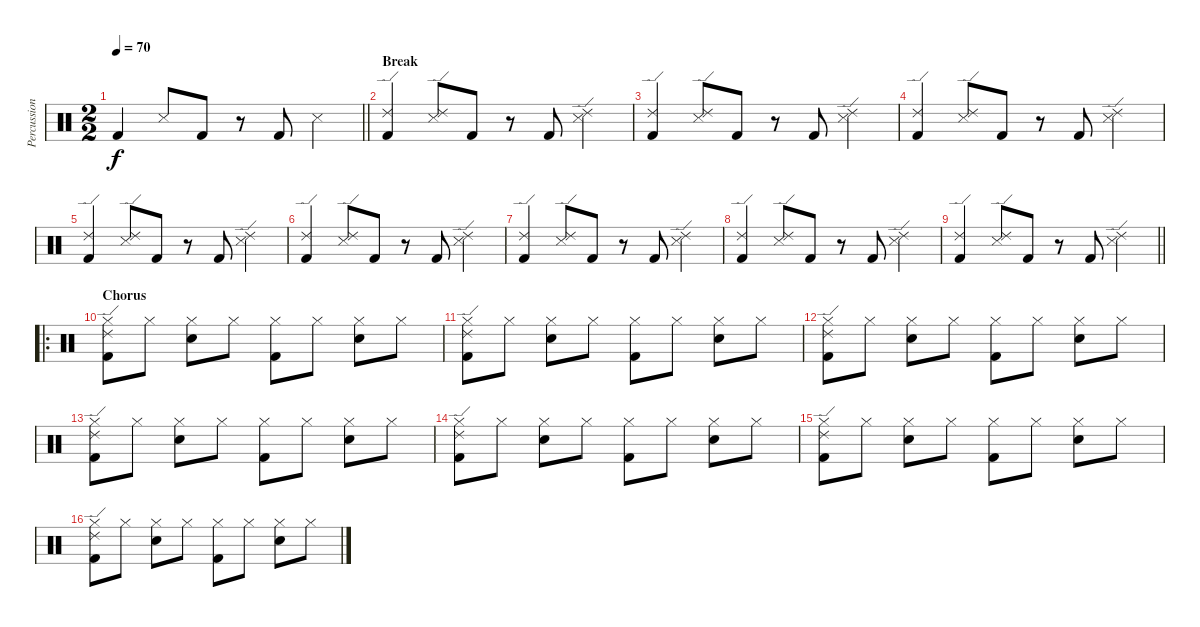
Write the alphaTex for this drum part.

\track ("Percussions" "Percussion") {instrument percussion}
\staff {score}
\articulation defaults
\ts (2 2)
\tempo 70
\clef neutral
\barLineRight lightlight
\ks c "Kick (hit) 2".4{dy f} "Snare (side stick) 3".8 "Kick (hit) 2".8
r.8 "Kick (hit) 2".8 "Snare (side stick) 3".4 |
\section ("" "Break")
("Ride (edge) 2" "Kick (hit) 2").4 ("Snare (side stick) 3" "Ride (edge) 2").8 "Kick (hit) 2".8 r.8 "Kick (hit) 2".8 ("Snare (side stick) 3" "Ride (edge) 2").4 |
("Ride (edge) 2" "Kick (hit) 2").4 ("Snare (side stick) 3" "Ride (edge) 2").8 "Kick (hit) 2".8 r.8 "Kick (hit) 2".8 ("Snare (side stick) 3" "Ride (edge) 2").4 |
("Ride (edge) 2" "Kick (hit) 2").4 ("Snare (side stick) 3" "Ride (edge) 2").8 "Kick (hit) 2".8 r.8 "Kick (hit) 2".8 ("Snare (side stick) 3" "Ride (edge) 2").4 |
("Ride (edge) 2" "Kick (hit) 2").4 ("Snare (side stick) 3" "Ride (edge) 2").8 "Kick (hit) 2".8 r.8 "Kick (hit) 2".8 ("Snare (side stick) 3" "Ride (edge) 2").4 |
("Ride (edge) 2" "Kick (hit) 2").4 ("Snare (side stick) 3" "Ride (edge) 2").8 "Kick (hit) 2".8 r.8 "Kick (hit) 2".8 ("Snare (side stick) 3" "Ride (edge) 2").4 |
("Ride (edge) 2" "Kick (hit) 2").4 ("Snare (side stick) 3" "Ride (edge) 2").8 "Kick (hit) 2".8 r.8 "Kick (hit) 2".8 ("Snare (side stick) 3" "Ride (edge) 2").4 |
("Ride (edge) 2" "Kick (hit) 2").4 ("Snare (side stick) 3" "Ride (edge) 2").8 "Kick (hit) 2".8 r.8 "Kick (hit) 2".8 ("Snare (side stick) 3" "Ride (edge) 2").4 |
\barLineRight lightlight
("Ride (edge) 2" "Kick (hit) 2").4 ("Snare (side stick) 3" "Ride (edge) 2").8 "Kick (hit) 2".8 r.8 "Kick (hit) 2".8 ("Snare (side stick) 3" "Ride (edge) 2").4 |
\ro
\section ("" "Chorus")
("Kick (hit) 2" "Hi-Hat (closed)" "Ride (edge) 2").8 "Hi-Hat (closed)".8 ("Hi-Hat (closed)" "Electric Snare (hit)").8 "Hi-Hat (closed)".8 ("Kick (hit) 2" "Hi-Hat (closed)").8 "Hi-Hat (closed)".8 ("Hi-Hat (closed)" "Electric Snare (hit)").8 "Hi-Hat (closed)".8 |
("Kick (hit) 2" "Hi-Hat (closed)" "Ride (edge) 2").8 "Hi-Hat (closed)".8 ("Hi-Hat (closed)" "Electric Snare (hit)").8 "Hi-Hat (closed)".8 ("Kick (hit) 2" "Hi-Hat (closed)").8 "Hi-Hat (closed)".8 ("Hi-Hat (closed)" "Electric Snare (hit)").8 "Hi-Hat (closed)".8 |
("Kick (hit) 2" "Hi-Hat (closed)" "Ride (edge) 2").8 "Hi-Hat (closed)".8 ("Hi-Hat (closed)" "Electric Snare (hit)").8 "Hi-Hat (closed)".8 ("Kick (hit) 2" "Hi-Hat (closed)").8 "Hi-Hat (closed)".8 ("Hi-Hat (closed)" "Electric Snare (hit)").8 "Hi-Hat (closed)".8 |
("Kick (hit) 2" "Hi-Hat (closed)" "Ride (edge) 2").8 "Hi-Hat (closed)".8 ("Hi-Hat (closed)" "Electric Snare (hit)").8 "Hi-Hat (closed)".8 ("Kick (hit) 2" "Hi-Hat (closed)").8 "Hi-Hat (closed)".8 ("Hi-Hat (closed)" "Electric Snare (hit)").8 "Hi-Hat (closed)".8 |
("Kick (hit) 2" "Hi-Hat (closed)" "Ride (edge) 2").8 "Hi-Hat (closed)".8 ("Hi-Hat (closed)" "Electric Snare (hit)").8 "Hi-Hat (closed)".8 ("Kick (hit) 2" "Hi-Hat (closed)").8 "Hi-Hat (closed)".8 ("Hi-Hat (closed)" "Electric Snare (hit)").8 "Hi-Hat (closed)".8 |
("Kick (hit) 2" "Hi-Hat (closed)" "Ride (edge) 2").8 "Hi-Hat (closed)".8 ("Hi-Hat (closed)" "Electric Snare (hit)").8 "Hi-Hat (closed)".8 ("Kick (hit) 2" "Hi-Hat (closed)").8 "Hi-Hat (closed)".8 ("Hi-Hat (closed)" "Electric Snare (hit)").8 "Hi-Hat (closed)".8 |
("Kick (hit) 2" "Hi-Hat (closed)" "Ride (edge) 2").8 "Hi-Hat (closed)".8 ("Hi-Hat (closed)" "Electric Snare (hit)").8 "Hi-Hat (closed)".8 ("Kick (hit) 2" "Hi-Hat (closed)").8 "Hi-Hat (closed)".8 ("Hi-Hat (closed)" "Electric Snare (hit)").8 "Hi-Hat (closed)".8
